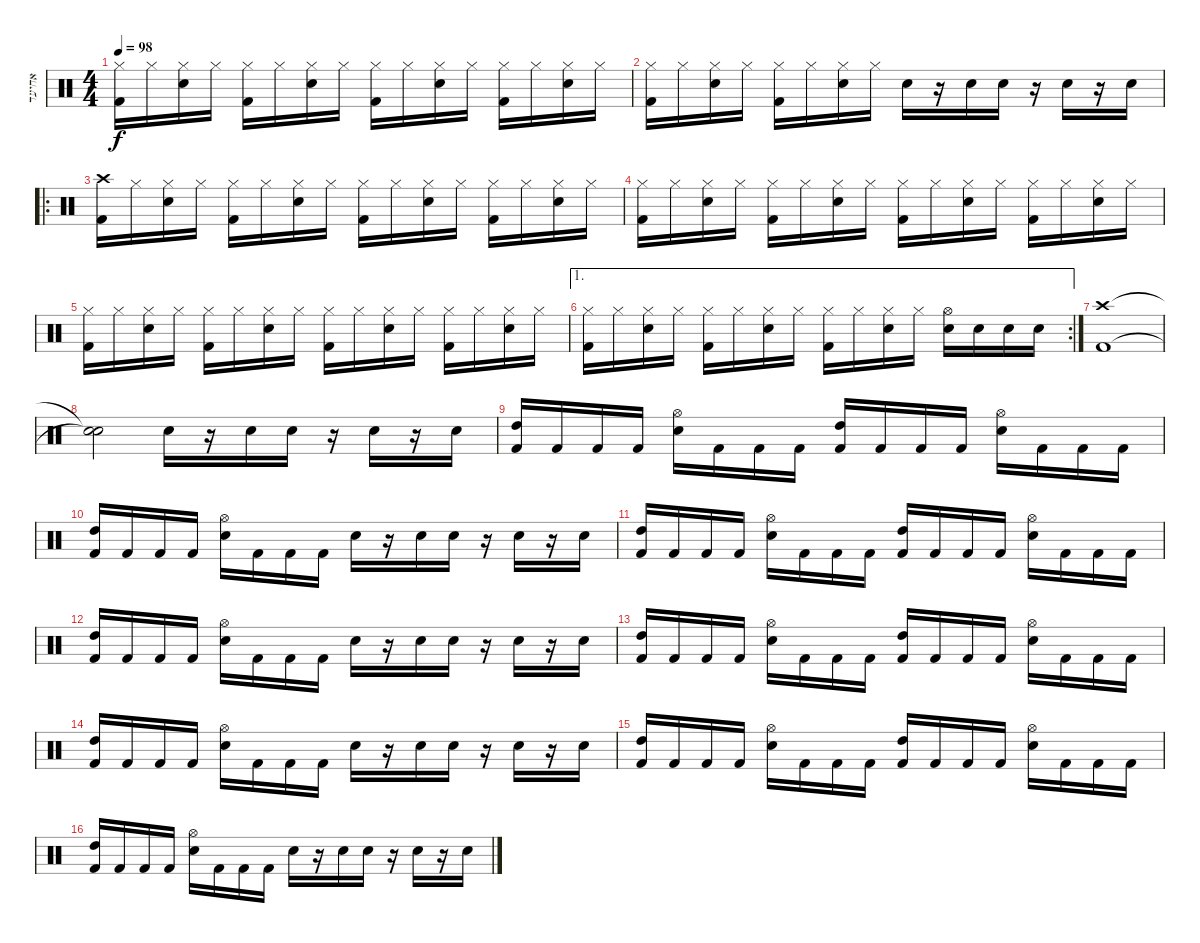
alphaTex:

\track ("אחיעד" "אחיעד") {instrument percussion}
\staff {score}
\articulation defaults
\ts (4 4)
\tempo 98
\clef neutral
\ks c
("Hi-Hat (closed)" "Kick (hit) 2").16{dy f} "Hi-Hat (closed)".16 ("Hi-Hat (closed)" "Snare (hit) 2").16 "Hi-Hat (closed)".16 ("Hi-Hat (closed)" "Kick (hit) 2").16 "Hi-Hat (closed)".16 ("Hi-Hat (closed)" "Snare (hit) 2").16 "Hi-Hat (closed)".16 ("Hi-Hat (closed)" "Kick (hit) 2").16 "Hi-Hat (closed)".16 ("Hi-Hat (closed)" "Snare (hit) 2").16 "Hi-Hat (closed)".16 ("Hi-Hat (closed)" "Kick (hit) 2").16 "Hi-Hat (closed)".16 ("Hi-Hat (closed)" "Snare (hit) 2").16 "Hi-Hat (closed)".16 |
("Hi-Hat (closed)" "Kick (hit) 2").16 "Hi-Hat (closed)".16 ("Hi-Hat (closed)" "Snare (hit) 2").16 "Hi-Hat (closed)".16 ("Hi-Hat (closed)" "Kick (hit) 2").16 "Hi-Hat (closed)".16 ("Hi-Hat (closed)" "Snare (hit) 2").16 "Hi-Hat (closed)".16 "Snare (hit) 2".16 r.16 "Snare (hit) 2".16 "Snare (hit) 2".16 r.16 "Snare (hit) 2".16 r.16 "Snare (hit) 2".16 |
\ro
("Crash high (hit)" "Kick (hit) 2").16 "Hi-Hat (closed)".16 ("Hi-Hat (closed)" "Snare (hit) 2").16 "Hi-Hat (closed)".16 ("Hi-Hat (closed)" "Kick (hit) 2").16 "Hi-Hat (closed)".16 ("Hi-Hat (closed)" "Snare (hit) 2").16 "Hi-Hat (closed)".16 ("Hi-Hat (closed)" "Kick (hit) 2").16 "Hi-Hat (closed)".16 ("Hi-Hat (closed)" "Snare (hit) 2").16 "Hi-Hat (closed)".16 ("Hi-Hat (closed)" "Kick (hit) 2").16 "Hi-Hat (closed)".16 ("Hi-Hat (closed)" "Snare (hit) 2").16 "Hi-Hat (closed)".16 |
("Hi-Hat (closed)" "Kick (hit) 2").16 "Hi-Hat (closed)".16 ("Hi-Hat (closed)" "Snare (hit) 2").16 "Hi-Hat (closed)".16 ("Hi-Hat (closed)" "Kick (hit) 2").16 "Hi-Hat (closed)".16 ("Hi-Hat (closed)" "Snare (hit) 2").16 "Hi-Hat (closed)".16 ("Hi-Hat (closed)" "Kick (hit) 2").16 "Hi-Hat (closed)".16 ("Hi-Hat (closed)" "Snare (hit) 2").16 "Hi-Hat (closed)".16 ("Hi-Hat (closed)" "Kick (hit) 2").16 "Hi-Hat (closed)".16 ("Hi-Hat (closed)" "Snare (hit) 2").16 "Hi-Hat (closed)".16 |
("Hi-Hat (closed)" "Kick (hit) 2").16 "Hi-Hat (closed)".16 ("Hi-Hat (closed)" "Snare (hit) 2").16 "Hi-Hat (closed)".16 ("Hi-Hat (closed)" "Kick (hit) 2").16 "Hi-Hat (closed)".16 ("Hi-Hat (closed)" "Snare (hit) 2").16 "Hi-Hat (closed)".16 ("Hi-Hat (closed)" "Kick (hit) 2").16 "Hi-Hat (closed)".16 ("Hi-Hat (closed)" "Snare (hit) 2").16 "Hi-Hat (closed)".16 ("Hi-Hat (closed)" "Kick (hit) 2").16 "Hi-Hat (closed)".16 ("Hi-Hat (closed)" "Snare (hit) 2").16 "Hi-Hat (closed)".16 |
\ae 1
\rc 2
("Hi-Hat (closed)" "Kick (hit) 2").16 "Hi-Hat (closed)".16 ("Hi-Hat (closed)" "Snare (hit) 2").16 "Hi-Hat (closed)".16 ("Hi-Hat (closed)" "Kick (hit) 2").16 "Hi-Hat (closed)".16 ("Hi-Hat (closed)" "Snare (hit) 2").16 "Hi-Hat (closed)".16 ("Hi-Hat (closed)" "Kick (hit) 2").16 "Hi-Hat (closed)".16 ("Hi-Hat (closed)" "Snare (hit) 2").16 "Hi-Hat (closed)".16 ("Hi-Hat (open)" "Snare (hit) 2").16 "Snare (hit) 2".16 "Snare (hit) 2".16 "Snare (hit) 2".16 |
("Crash high (hit)" "Kick (hit) 2").1 |
("Snare (hit)"{t} "Snare (hit)"{t}).2 "Snare (hit) 2".16 r.16 "Snare (hit) 2".16 "Snare (hit) 2".16 r.16 "Snare (hit) 2".16 r.16 "Snare (hit) 2".16 |
("High Tom (hit)" "Kick (hit) 2").16 "Kick (hit) 2".16 "Kick (hit) 2".16 "Kick (hit) 2".16 ("Snare (hit) 2" "Hi-Hat (open)").16 "Kick (hit) 2".16 "Kick (hit) 2".16 "Kick (hit) 2".16 ("High Tom (hit)" "Kick (hit) 2").16 "Kick (hit) 2".16 "Kick (hit) 2".16 "Kick (hit) 2".16 ("Snare (hit) 2" "Hi-Hat (open)").16 "Kick (hit) 2".16 "Kick (hit) 2".16 "Kick (hit) 2".16 |
("High Tom (hit)" "Kick (hit) 2").16 "Kick (hit) 2".16 "Kick (hit) 2".16 "Kick (hit) 2".16 ("Snare (hit) 2" "Hi-Hat (open)").16 "Kick (hit) 2".16 "Kick (hit) 2".16 "Kick (hit) 2".16 "Snare (hit) 2".16 r.16 "Snare (hit) 2".16 "Snare (hit) 2".16 r.16 "Snare (hit) 2".16 r.16 "Snare (hit) 2".16 |
("High Tom (hit)" "Kick (hit) 2").16 "Kick (hit) 2".16 "Kick (hit) 2".16 "Kick (hit) 2".16 ("Snare (hit) 2" "Hi-Hat (open)").16 "Kick (hit) 2".16 "Kick (hit) 2".16 "Kick (hit) 2".16 ("High Tom (hit)" "Kick (hit) 2").16 "Kick (hit) 2".16 "Kick (hit) 2".16 "Kick (hit) 2".16 ("Snare (hit) 2" "Hi-Hat (open)").16 "Kick (hit) 2".16 "Kick (hit) 2".16 "Kick (hit) 2".16 |
("High Tom (hit)" "Kick (hit) 2").16 "Kick (hit) 2".16 "Kick (hit) 2".16 "Kick (hit) 2".16 ("Snare (hit) 2" "Hi-Hat (open)").16 "Kick (hit) 2".16 "Kick (hit) 2".16 "Kick (hit) 2".16 "Snare (hit) 2".16 r.16 "Snare (hit) 2".16 "Snare (hit) 2".16 r.16 "Snare (hit) 2".16 r.16 "Snare (hit) 2".16 |
("High Tom (hit)" "Kick (hit) 2").16 "Kick (hit) 2".16 "Kick (hit) 2".16 "Kick (hit) 2".16 ("Snare (hit) 2" "Hi-Hat (open)").16 "Kick (hit) 2".16 "Kick (hit) 2".16 "Kick (hit) 2".16 ("High Tom (hit)" "Kick (hit) 2").16 "Kick (hit) 2".16 "Kick (hit) 2".16 "Kick (hit) 2".16 ("Snare (hit) 2" "Hi-Hat (open)").16 "Kick (hit) 2".16 "Kick (hit) 2".16 "Kick (hit) 2".16 |
("High Tom (hit)" "Kick (hit) 2").16 "Kick (hit) 2".16 "Kick (hit) 2".16 "Kick (hit) 2".16 ("Snare (hit) 2" "Hi-Hat (open)").16 "Kick (hit) 2".16 "Kick (hit) 2".16 "Kick (hit) 2".16 "Snare (hit) 2".16 r.16 "Snare (hit) 2".16 "Snare (hit) 2".16 r.16 "Snare (hit) 2".16 r.16 "Snare (hit) 2".16 |
("High Tom (hit)" "Kick (hit) 2").16 "Kick (hit) 2".16 "Kick (hit) 2".16 "Kick (hit) 2".16 ("Snare (hit) 2" "Hi-Hat (open)").16 "Kick (hit) 2".16 "Kick (hit) 2".16 "Kick (hit) 2".16 ("High Tom (hit)" "Kick (hit) 2").16 "Kick (hit) 2".16 "Kick (hit) 2".16 "Kick (hit) 2".16 ("Snare (hit) 2" "Hi-Hat (open)").16 "Kick (hit) 2".16 "Kick (hit) 2".16 "Kick (hit) 2".16 |
("High Tom (hit)" "Kick (hit) 2").16 "Kick (hit) 2".16 "Kick (hit) 2".16 "Kick (hit) 2".16 ("Snare (hit) 2" "Hi-Hat (open)").16 "Kick (hit) 2".16 "Kick (hit) 2".16 "Kick (hit) 2".16 "Snare (hit) 2".16 r.16 "Snare (hit) 2".16 "Snare (hit) 2".16 r.16 "Snare (hit) 2".16 r.16 "Snare (hit) 2".16
